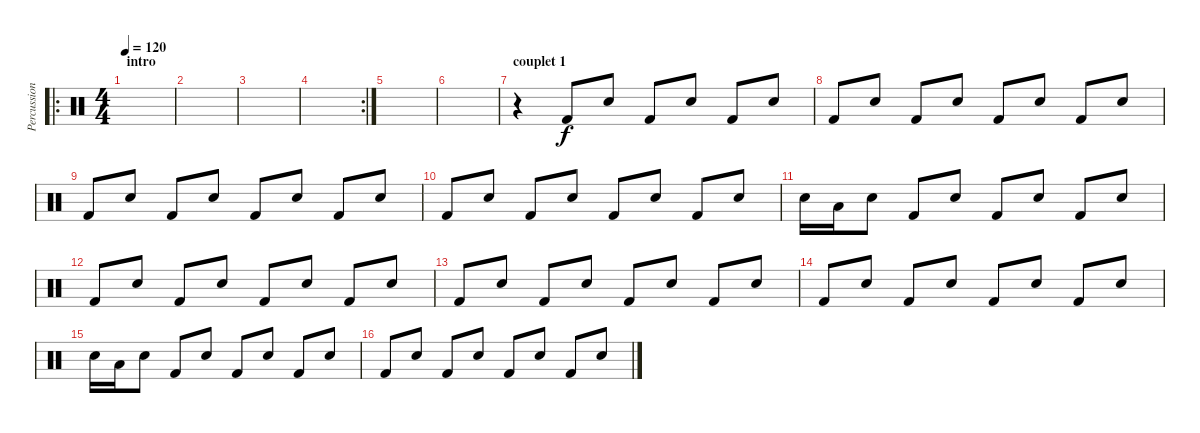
\track ("Percussions-Vlad" "Percussion") {instrument percussion}
\staff {score}
\articulation defaults
\ro
\ts (4 4)
\section ("" "intro")
\tempo 120
\clef neutral
\ks c
|
|
|
\rc 2
|
|
|
\section ("" "couplet 1")
r.4 "Kick (hit) 2".8 "Electric Snare (hit)".8 "Kick (hit) 2".8 "Electric Snare (hit)".8 "Kick (hit) 2".8 "Electric Snare (hit)".8 |
"Kick (hit) 2".8 "Electric Snare (hit)".8 "Kick (hit) 2".8 "Electric Snare (hit)".8 "Kick (hit) 2".8 "Electric Snare (hit)".8 "Kick (hit) 2".8 "Electric Snare (hit)".8 |
"Kick (hit) 2".8 "Electric Snare (hit)".8 "Kick (hit) 2".8 "Electric Snare (hit)".8 "Kick (hit) 2".8 "Electric Snare (hit)".8 "Kick (hit) 2".8 "Electric Snare (hit)".8 |
"Kick (hit) 2".8 "Electric Snare (hit)".8 "Kick (hit) 2".8 "Electric Snare (hit)".8 "Kick (hit) 2".8 "Electric Snare (hit)".8 "Kick (hit) 2".8 "Electric Snare (hit)".8 |
"Electric Snare (hit)".16 "Low Tom (hit)".16 "Electric Snare (hit)".8 "Kick (hit) 2".8 "Electric Snare (hit)".8 "Kick (hit) 2".8 "Electric Snare (hit)".8 "Kick (hit) 2".8 "Electric Snare (hit)".8 |
"Kick (hit) 2".8 "Electric Snare (hit)".8 "Kick (hit) 2".8 "Electric Snare (hit)".8 "Kick (hit) 2".8 "Electric Snare (hit)".8 "Kick (hit) 2".8 "Electric Snare (hit)".8 |
"Kick (hit) 2".8 "Electric Snare (hit)".8 "Kick (hit) 2".8 "Electric Snare (hit)".8 "Kick (hit) 2".8 "Electric Snare (hit)".8 "Kick (hit) 2".8 "Electric Snare (hit)".8 |
"Kick (hit) 2".8 "Electric Snare (hit)".8 "Kick (hit) 2".8 "Electric Snare (hit)".8 "Kick (hit) 2".8 "Electric Snare (hit)".8 "Kick (hit) 2".8 "Electric Snare (hit)".8 |
"Electric Snare (hit)".16 "Low Tom (hit)".16 "Electric Snare (hit)".8 "Kick (hit) 2".8 "Electric Snare (hit)".8 "Kick (hit) 2".8 "Electric Snare (hit)".8 "Kick (hit) 2".8 "Electric Snare (hit)".8 |
"Kick (hit) 2".8 "Electric Snare (hit)".8 "Kick (hit) 2".8 "Electric Snare (hit)".8 "Kick (hit) 2".8 "Electric Snare (hit)".8 "Kick (hit) 2".8 "Electric Snare (hit)".8
